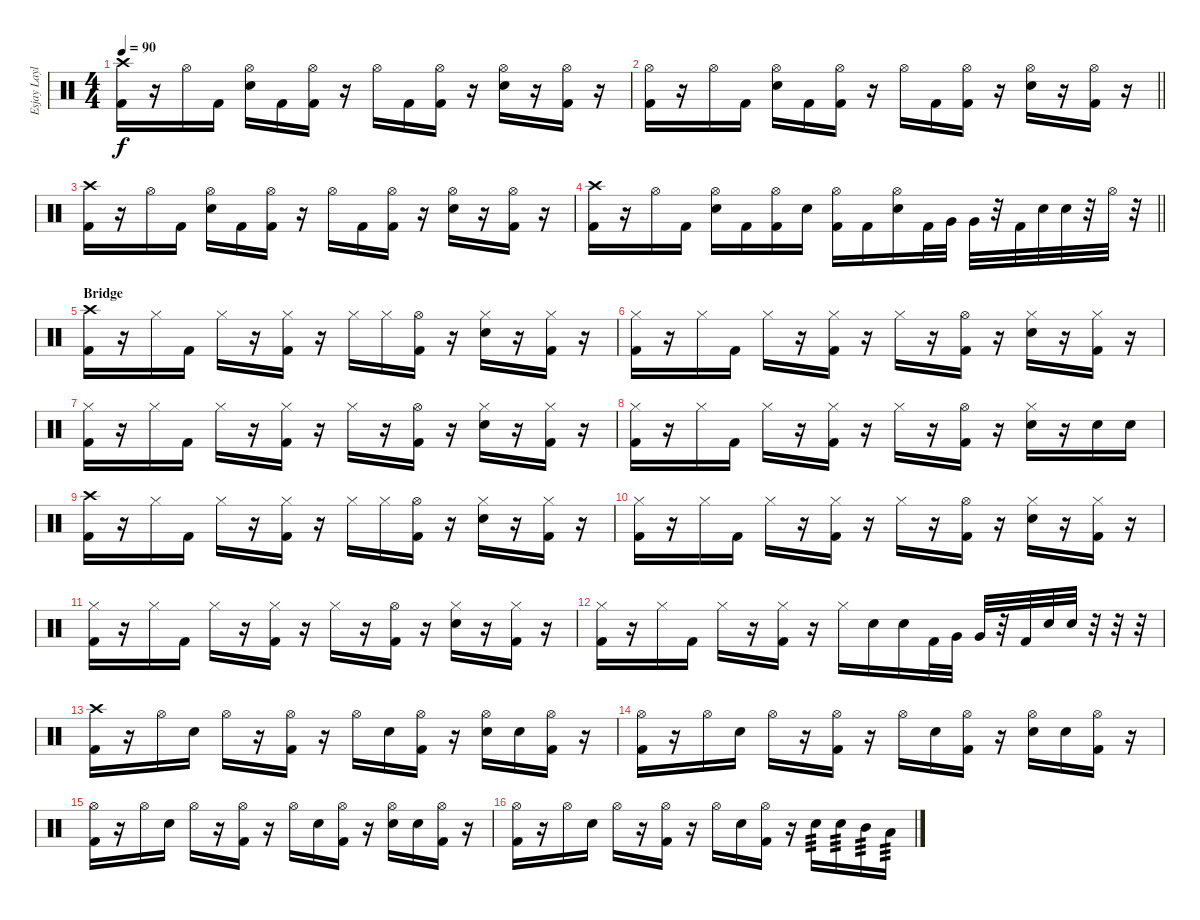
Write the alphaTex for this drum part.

\track ("Esjay Laylo's Drums" "Esjay Layl") {instrument percussion}
\staff {score}
\articulation defaults
\ts (4 4)
\tempo 90
\clef neutral
\ks c
("Crash high (hit)" "Kick (hit) 2").16{dy f} r.16 "Hi-Hat (open)".16 "Kick (hit) 2".16 ("Hi-Hat (open)" "Snare (hit) 2").16 "Kick (hit) 2".16 ("Hi-Hat (open)" "Kick (hit) 2").16 r.16 "Hi-Hat (open)".16 "Kick (hit) 2".16 ("Hi-Hat (open)" "Kick (hit) 2").16 r.16 ("Hi-Hat (open)" "Snare (hit) 2").16 r.16 ("Hi-Hat (open)" "Kick (hit) 2").16 r.16 |
\barLineRight lightlight
("Hi-Hat (open)" "Kick (hit) 2").16 r.16 "Hi-Hat (open)".16 "Kick (hit) 2".16 ("Hi-Hat (open)" "Snare (hit) 2").16 "Kick (hit) 2".16 ("Hi-Hat (open)" "Kick (hit) 2").16 r.16 "Hi-Hat (open)".16 "Kick (hit) 2".16 ("Hi-Hat (open)" "Kick (hit) 2").16 r.16 ("Hi-Hat (open)" "Snare (hit) 2").16 r.16 ("Hi-Hat (open)" "Kick (hit) 2").16 r.16 |
("Crash high (hit)" "Kick (hit) 2").16 r.16 "Hi-Hat (open)".16 "Kick (hit) 2".16 ("Hi-Hat (open)" "Snare (hit) 2").16 "Kick (hit) 2".16 ("Hi-Hat (open)" "Kick (hit) 2").16 r.16 "Hi-Hat (open)".16 "Kick (hit) 2".16 ("Hi-Hat (open)" "Kick (hit) 2").16 r.16 ("Hi-Hat (open)" "Snare (hit) 2").16 r.16 ("Hi-Hat (open)" "Kick (hit) 2").16 r.16 |
\barLineRight lightlight
("Crash high (hit)" "Kick (hit) 2").16 r.16 "Hi-Hat (open)".16 "Kick (hit) 2".16 ("Hi-Hat (open)" "Snare (hit) 2").16 "Kick (hit) 2".16 ("Hi-Hat (open)" "Kick (hit) 2").16 "Snare (hit) 2".16 ("Hi-Hat (open)" "Kick (hit) 2").16 "Kick (hit) 2".16 ("Hi-Hat (open)" "Snare (hit) 2").16 "Kick (hit) 2".32 "Very Low Tom (hit)".32 "Very Low Tom (hit)".32 r.32 "Kick (hit) 2".32 "Snare (hit) 2".32 "Snare (hit) 2".32 r.32 "Hi-Hat (open)".32 r.32 |
\section ("" "Bridge")
("Crash high (hit)" "Kick (hit) 2").16 r.16 "Hi-Hat (closed)".16 "Kick (hit) 2".16 "Hi-Hat (closed)".16 r.16 ("Hi-Hat (closed)" "Kick (hit) 2").16 r.16 "Hi-Hat (closed)".16 "Hi-Hat (closed)".16 ("Hi-Hat (open)" "Kick (hit) 2").16 r.16 ("Hi-Hat (closed)" "Snare (hit) 2").16 r.16 ("Hi-Hat (closed)" "Kick (hit) 2").16 r.16 |
("Hi-Hat (closed)" "Kick (hit) 2").16 r.16 "Hi-Hat (closed)".16 "Kick (hit) 2".16 "Hi-Hat (closed)".16 r.16 ("Hi-Hat (closed)" "Kick (hit) 2").16 r.16 "Hi-Hat (closed)".16 r.16 ("Hi-Hat (open)" "Kick (hit) 2").16 r.16 ("Hi-Hat (closed)" "Snare (hit) 2").16 r.16 ("Hi-Hat (closed)" "Kick (hit) 2").16 r.16 |
("Hi-Hat (closed)" "Kick (hit) 2").16 r.16 "Hi-Hat (closed)".16 "Kick (hit) 2".16 "Hi-Hat (closed)".16 r.16 ("Hi-Hat (closed)" "Kick (hit) 2").16 r.16 "Hi-Hat (closed)".16 r.16 ("Hi-Hat (open)" "Kick (hit) 2").16 r.16 ("Hi-Hat (closed)" "Snare (hit) 2").16 r.16 ("Hi-Hat (closed)" "Kick (hit) 2").16 r.16 |
("Hi-Hat (closed)" "Kick (hit) 2").16 r.16 "Hi-Hat (closed)".16 "Kick (hit) 2".16 "Hi-Hat (closed)".16 r.16 ("Hi-Hat (closed)" "Kick (hit) 2").16 r.16 "Hi-Hat (closed)".16 r.16 ("Hi-Hat (open)" "Kick (hit) 2").16 r.16 ("Hi-Hat (closed)" "Snare (hit) 2").16 r.16 "Snare (hit) 2".16 "Snare (hit) 2".16 |
("Crash high (hit)" "Kick (hit) 2").16 r.16 "Hi-Hat (closed)".16 "Kick (hit) 2".16 "Hi-Hat (closed)".16 r.16 ("Hi-Hat (closed)" "Kick (hit) 2").16 r.16 "Hi-Hat (closed)".16 "Hi-Hat (closed)".16 ("Hi-Hat (open)" "Kick (hit) 2").16 r.16 ("Hi-Hat (closed)" "Snare (hit) 2").16 r.16 ("Hi-Hat (closed)" "Kick (hit) 2").16 r.16 |
("Hi-Hat (closed)" "Kick (hit) 2").16 r.16 "Hi-Hat (closed)".16 "Kick (hit) 2".16 "Hi-Hat (closed)".16 r.16 ("Hi-Hat (closed)" "Kick (hit) 2").16 r.16 "Hi-Hat (closed)".16 r.16 ("Hi-Hat (open)" "Kick (hit) 2").16 r.16 ("Hi-Hat (closed)" "Snare (hit) 2").16 r.16 ("Hi-Hat (closed)" "Kick (hit) 2").16 r.16 |
("Hi-Hat (closed)" "Kick (hit) 2").16 r.16 "Hi-Hat (closed)".16 "Kick (hit) 2".16 "Hi-Hat (closed)".16 r.16 ("Hi-Hat (closed)" "Kick (hit) 2").16 r.16 "Hi-Hat (closed)".16 r.16 ("Hi-Hat (open)" "Kick (hit) 2").16 r.16 ("Hi-Hat (closed)" "Snare (hit) 2").16 r.16 ("Hi-Hat (closed)" "Kick (hit) 2").16 r.16 |
("Hi-Hat (closed)" "Kick (hit) 2").16 r.16 "Hi-Hat (closed)".16 "Kick (hit) 2".16 "Hi-Hat (closed)".16 r.16 ("Hi-Hat (closed)" "Kick (hit) 2").16 r.16 "Hi-Hat (closed)".16 "Snare (hit) 2".16 "Snare (hit) 2".16 "Kick (hit) 2".32 "Very Low Tom (hit)".32 "Very Low Tom (hit)".32 r.32 "Kick (hit) 2".32 "Snare (hit) 2".32 "Snare (hit) 2".32 r.32 r.32 r.32 |
("Crash high (hit)" "Kick (hit) 2").16 r.16 "Hi-Hat (open)".16 "Snare (hit) 2".16 "Hi-Hat (open)".16 r.16 ("Hi-Hat (open)" "Kick (hit) 2").16 r.16 "Hi-Hat (open)".16 "Snare (hit) 2".16 ("Hi-Hat (open)" "Kick (hit) 2").16 r.16 ("Hi-Hat (open)" "Snare (hit) 2").16 "Snare (hit) 2".16 ("Hi-Hat (open)" "Kick (hit) 2").16 r.16 |
("Hi-Hat (open)" "Kick (hit) 2").16 r.16 "Hi-Hat (open)".16 "Snare (hit) 2".16 "Hi-Hat (open)".16 r.16 ("Hi-Hat (open)" "Kick (hit) 2").16 r.16 "Hi-Hat (open)".16 "Snare (hit) 2".16 ("Hi-Hat (open)" "Kick (hit) 2").16 r.16 ("Hi-Hat (open)" "Snare (hit) 2").16 "Snare (hit) 2".16 ("Hi-Hat (open)" "Kick (hit) 2").16 r.16 |
("Hi-Hat (open)" "Kick (hit) 2").16 r.16 "Hi-Hat (open)".16 "Snare (hit) 2".16 "Hi-Hat (open)".16 r.16 ("Hi-Hat (open)" "Kick (hit) 2").16 r.16 "Hi-Hat (open)".16 "Snare (hit) 2".16 ("Hi-Hat (open)" "Kick (hit) 2").16 r.16 ("Hi-Hat (open)" "Snare (hit) 2").16 "Snare (hit) 2".16 ("Hi-Hat (open)" "Kick (hit) 2").16 r.16 |
("Hi-Hat (open)" "Kick (hit) 2").16 r.16 "Hi-Hat (open)".16 "Snare (hit) 2".16 "Hi-Hat (open)".16 r.16 ("Hi-Hat (open)" "Kick (hit) 2").16 r.16 "Hi-Hat (open)".16 "Snare (hit) 2".16 ("Hi-Hat (open)" "Kick (hit) 2").16 r.16 "Snare (hit) 2".16{tp 3} "Snare (hit) 2".16{tp 3} "Mid Tom (hit)".16{tp 3} "Low Tom (hit)".16{tp 3}
